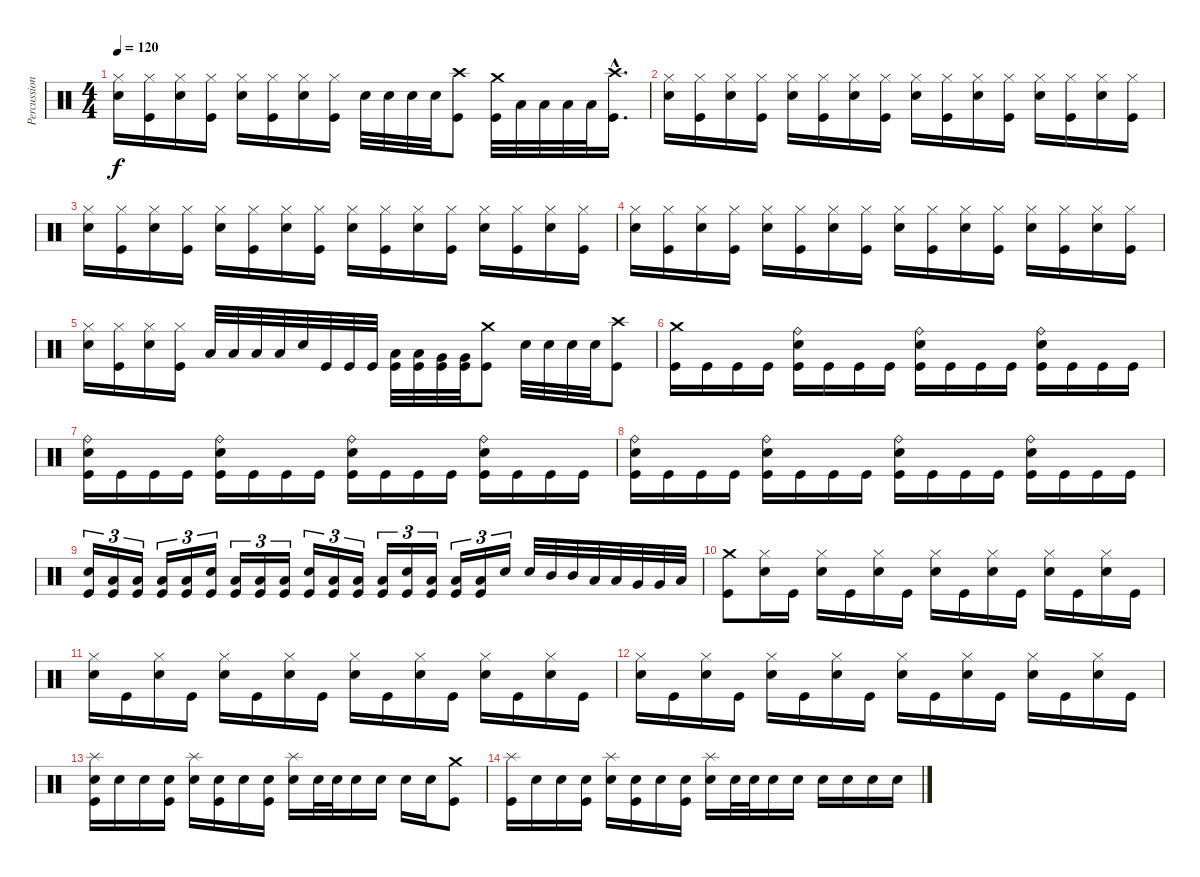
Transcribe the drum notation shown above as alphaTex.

\track ("Percussions" "Percussion") {instrument percussion}
\staff {score}
\articulation defaults
\ts (4 4)
\tempo 120
\clef neutral
\ks c
("Electric Snare (hit)" "Hi-Hat (closed)").16{dy f} ("Kick (hit)" "Hi-Hat (closed)").16 ("Electric Snare (hit)" "Hi-Hat (closed)").16 ("Kick (hit)" "Hi-Hat (closed)").16 ("Electric Snare (hit)" "Hi-Hat (closed)").16 ("Kick (hit)" "Hi-Hat (closed)").16 ("Electric Snare (hit)" "Hi-Hat (closed)").16 ("Kick (hit)" "Hi-Hat (closed)").16 "Electric Snare (hit)".32 "Electric Snare (hit)".32 "Electric Snare (hit)".32 "Electric Snare (hit)".32 ("Kick (hit)" "Crash high (hit)").8 ("Kick (hit)" "Crash medium (hit)").32 "Low Tom (hit)".32 "Low Tom (hit)".32 "Low Tom (hit)".32 "Low Tom (hit)".32 ("Kick (hit)"{hac} "Crash high (hit)"{hac}).16{d} |
("Electric Snare (hit)" "Hi-Hat (closed)").16 ("Kick (hit)" "Hi-Hat (closed)").16 ("Electric Snare (hit)" "Hi-Hat (closed)").16 ("Kick (hit)" "Hi-Hat (closed)").16 ("Electric Snare (hit)" "Hi-Hat (closed)").16 ("Kick (hit)" "Hi-Hat (closed)").16 ("Electric Snare (hit)" "Hi-Hat (closed)").16 ("Kick (hit)" "Hi-Hat (closed)").16 ("Electric Snare (hit)" "Hi-Hat (closed)").16 ("Kick (hit)" "Hi-Hat (closed)").16 ("Electric Snare (hit)" "Hi-Hat (closed)").16 ("Kick (hit)" "Hi-Hat (closed)").16 ("Electric Snare (hit)" "Hi-Hat (closed)").16 ("Kick (hit)" "Hi-Hat (closed)").16 ("Electric Snare (hit)" "Hi-Hat (closed)").16 ("Kick (hit)" "Hi-Hat (closed)").16 |
("Electric Snare (hit)" "Hi-Hat (closed)").16 ("Kick (hit)" "Hi-Hat (closed)").16 ("Electric Snare (hit)" "Hi-Hat (closed)").16 ("Kick (hit)" "Hi-Hat (closed)").16 ("Electric Snare (hit)" "Hi-Hat (closed)").16 ("Kick (hit)" "Hi-Hat (closed)").16 ("Electric Snare (hit)" "Hi-Hat (closed)").16 ("Kick (hit)" "Hi-Hat (closed)").16 ("Electric Snare (hit)" "Hi-Hat (closed)").16 ("Kick (hit)" "Hi-Hat (closed)").16 ("Electric Snare (hit)" "Hi-Hat (closed)").16 ("Kick (hit)" "Hi-Hat (closed)").16 ("Electric Snare (hit)" "Hi-Hat (closed)").16 ("Kick (hit)" "Hi-Hat (closed)").16 ("Electric Snare (hit)" "Hi-Hat (closed)").16 ("Kick (hit)" "Hi-Hat (closed)").16 |
("Electric Snare (hit)" "Hi-Hat (closed)").16 ("Kick (hit)" "Hi-Hat (closed)").16 ("Electric Snare (hit)" "Hi-Hat (closed)").16 ("Kick (hit)" "Hi-Hat (closed)").16 ("Electric Snare (hit)" "Hi-Hat (closed)").16 ("Kick (hit)" "Hi-Hat (closed)").16 ("Electric Snare (hit)" "Hi-Hat (closed)").16 ("Kick (hit)" "Hi-Hat (closed)").16 ("Electric Snare (hit)" "Hi-Hat (closed)").16 ("Kick (hit)" "Hi-Hat (closed)").16 ("Electric Snare (hit)" "Hi-Hat (closed)").16 ("Kick (hit)" "Hi-Hat (closed)").16 ("Electric Snare (hit)" "Hi-Hat (closed)").16 ("Kick (hit)" "Hi-Hat (closed)").16 ("Electric Snare (hit)" "Hi-Hat (closed)").16 ("Kick (hit)" "Hi-Hat (closed)").16 |
("Electric Snare (hit)" "Hi-Hat (closed)").16 ("Kick (hit)" "Hi-Hat (closed)").16 ("Electric Snare (hit)" "Hi-Hat (closed)").16 ("Kick (hit)" "Hi-Hat (closed)").16 "Low Tom (hit)".32 "Low Tom (hit)".32 "Low Tom (hit)".32 "Low Tom (hit)".32 "Electric Snare (hit)".32 "Kick (hit)".32 "Kick (hit)".32 "Kick (hit)".32 ("Kick (hit)" "Low Tom (hit)").32 ("Kick (hit)" "Low Tom (hit)").32 ("Kick (hit)" "Very Low Tom (hit)").32 ("Kick (hit)" "Very Low Tom (hit)").32 ("Kick (hit)" "Crash medium (hit)").8 "Electric Snare (hit)".32 "Electric Snare (hit)".32 "Electric Snare (hit)".32 "Electric Snare (hit)".32 ("Kick (hit)" "Crash high (hit)").8 |
("Kick (hit)" "Crash medium (hit)").16 "Kick (hit)".16 "Kick (hit)".16 "Kick (hit)".16 ("Kick (hit)" "Electric Snare (hit)" "Ride (bell)").16 "Kick (hit)".16 "Kick (hit)".16 "Kick (hit)".16 ("Kick (hit)" "Electric Snare (hit)" "Ride (bell)").16 "Kick (hit)".16 "Kick (hit)".16 "Kick (hit)".16 ("Kick (hit)" "Electric Snare (hit)" "Ride (bell)").16 "Kick (hit)".16 "Kick (hit)".16 "Kick (hit)".16 |
("Kick (hit)" "Electric Snare (hit)" "Ride (bell)").16 "Kick (hit)".16 "Kick (hit)".16 "Kick (hit)".16 ("Kick (hit)" "Electric Snare (hit)" "Ride (bell)").16 "Kick (hit)".16 "Kick (hit)".16 "Kick (hit)".16 ("Kick (hit)" "Electric Snare (hit)" "Ride (bell)").16 "Kick (hit)".16 "Kick (hit)".16 "Kick (hit)".16 ("Kick (hit)" "Electric Snare (hit)" "Ride (bell)").16 "Kick (hit)".16 "Kick (hit)".16 "Kick (hit)".16 |
("Kick (hit)" "Electric Snare (hit)" "Ride (bell)").16 "Kick (hit)".16 "Kick (hit)".16 "Kick (hit)".16 ("Kick (hit)" "Electric Snare (hit)" "Ride (bell)").16 "Kick (hit)".16 "Kick (hit)".16 "Kick (hit)".16 ("Kick (hit)" "Electric Snare (hit)" "Ride (bell)").16 "Kick (hit)".16 "Kick (hit)".16 "Kick (hit)".16 ("Kick (hit)" "Electric Snare (hit)" "Ride (bell)").16 "Kick (hit)".16 "Kick (hit)".16 "Kick (hit)".16 |
("Kick (hit)" "Electric Snare (hit)").16{tu (3 2)} ("Kick (hit)" "Low Tom (hit)").16{tu (3 2)} ("Kick (hit)" "Low Tom (hit)").16{tu (3 2)} ("Kick (hit)" "Low Tom (hit)").16{tu (3 2)} ("Kick (hit)" "Low Tom (hit)").16{tu (3 2)} ("Kick (hit)" "Electric Snare (hit)").16{tu (3 2)} ("Kick (hit)" "Low Tom (hit)").16{tu (3 2)} ("Kick (hit)" "Low Tom (hit)").16{tu (3 2)} ("Kick (hit)" "Low Tom (hit)").16{tu (3 2)} ("Kick (hit)" "Electric Snare (hit)").16{tu (3 2)} ("Kick (hit)" "Low Tom (hit)").16{tu (3 2)} ("Kick (hit)" "Low Tom (hit)").16{tu (3 2)} ("Kick (hit)" "Low Tom (hit)").16{tu (3 2)} ("Kick (hit)" "Electric Snare (hit)").16{tu (3 2)} ("Kick (hit)" "Low Tom (hit)").16{tu (3 2)} ("Kick (hit)" "Low Tom (hit)").16{tu (3 2)} ("Kick (hit)" "Low Tom (hit)").16{tu (3 2)} "Electric Snare (hit)".16{tu (3 2)} "Electric Snare (hit)".32 "Mid Tom (hit)".32 "Mid Tom (hit)".32 "Low Tom (hit)".32 "Low Tom (hit)".32 "Very Low Tom (hit)".32 "Very Low Tom (hit)".32 "Low Floor Tom (hit)".32 |
("Kick (hit)" "Crash medium (hit)").8 ("Electric Snare (hit)" "Hi-Hat (closed)").16 "Kick (hit)".16 ("Electric Snare (hit)" "Hi-Hat (closed)").16 "Kick (hit)".16 ("Electric Snare (hit)" "Hi-Hat (closed)").16 "Kick (hit)".16 ("Electric Snare (hit)" "Hi-Hat (closed)").16 "Kick (hit)".16 ("Electric Snare (hit)" "Hi-Hat (closed)").16 "Kick (hit)".16 ("Electric Snare (hit)" "Hi-Hat (closed)").16 "Kick (hit)".16 ("Electric Snare (hit)" "Hi-Hat (closed)").16 "Kick (hit)".16 |
("Electric Snare (hit)" "Hi-Hat (closed)").16 "Kick (hit)".16 ("Electric Snare (hit)" "Hi-Hat (closed)").16 "Kick (hit)".16 ("Electric Snare (hit)" "Hi-Hat (closed)").16 "Kick (hit)".16 ("Electric Snare (hit)" "Hi-Hat (closed)").16 "Kick (hit)".16 ("Electric Snare (hit)" "Hi-Hat (closed)").16 "Kick (hit)".16 ("Electric Snare (hit)" "Hi-Hat (closed)").16 "Kick (hit)".16 ("Electric Snare (hit)" "Hi-Hat (closed)").16 "Kick (hit)".16 ("Electric Snare (hit)" "Hi-Hat (closed)").16 "Kick (hit)".16 |
("Electric Snare (hit)" "Hi-Hat (closed)").16 "Kick (hit)".16 ("Electric Snare (hit)" "Hi-Hat (closed)").16 "Kick (hit)".16 ("Electric Snare (hit)" "Hi-Hat (closed)").16 "Kick (hit)".16 ("Electric Snare (hit)" "Hi-Hat (closed)").16 "Kick (hit)".16 ("Electric Snare (hit)" "Hi-Hat (closed)").16 "Kick (hit)".16 ("Electric Snare (hit)" "Hi-Hat (closed)").16 "Kick (hit)".16 ("Electric Snare (hit)" "Hi-Hat (closed)").16 "Kick (hit)".16 ("Electric Snare (hit)" "Hi-Hat (closed)").16 "Kick (hit)".16 |
("Kick (hit)" "Electric Snare (hit)" "Splash (hit)").16 "Electric Snare (hit)".16 "Electric Snare (hit)".16 ("Kick (hit)" "Electric Snare (hit)").16 ("Electric Snare (hit)" "Splash (hit)").16 ("Kick (hit)" "Electric Snare (hit)").16 "Electric Snare (hit)".16 ("Kick (hit)" "Electric Snare (hit)").16 ("Electric Snare (hit)" "Splash (hit)").16 "Electric Snare (hit)".32 "Electric Snare (hit)".32 "Electric Snare (hit)".16 "Electric Snare (hit)".16 "Electric Snare (hit)".16 "Electric Snare (hit)".16 ("Kick (hit)" "Crash medium (hit)").8 |
("Kick (hit)" "Splash (hit)").16 "Electric Snare (hit)".16 "Electric Snare (hit)".16 ("Kick (hit)" "Electric Snare (hit)").16 ("Electric Snare (hit)" "Splash (hit)").16 ("Kick (hit)" "Electric Snare (hit)").16 "Electric Snare (hit)".16 ("Kick (hit)" "Electric Snare (hit)").16 ("Electric Snare (hit)" "Splash (hit)").16 "Electric Snare (hit)".32 "Electric Snare (hit)".32 "Electric Snare (hit)".16 "Electric Snare (hit)".16 "Electric Snare (hit)".16 "Electric Snare (hit)".16 "Electric Snare (hit)".16 "Electric Snare (hit)".16
